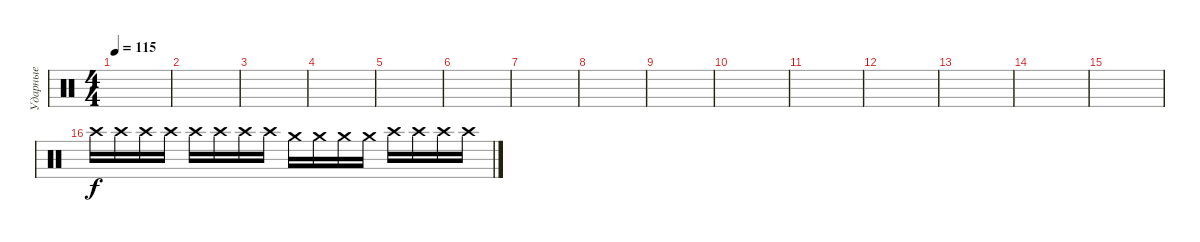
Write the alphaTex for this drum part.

\track ("Ударные" "Ударные") {instrument percussion}
\staff {score}
\articulation defaults
\ts (4 4)
\tempo 115
\clef neutral
\ks c
|
|
|
|
|
|
|
|
|
|
|
|
|
|
|
"Crash high (hit)".16{volume 2} "Crash high (hit)".16{volume 3} "Crash high (hit)".16{volume 4} "Crash high (hit)".16{volume 5} "Crash high (hit)".16{volume 2} "Crash high (hit)".16{volume 3} "Crash high (hit)".16{volume 4} "Crash high (hit)".16{volume 5} "Crash medium (hit)".16{volume 6} "Crash medium (hit)".16{volume 7} "Crash medium (hit)".16{volume 8} "Crash medium (hit)".16{volume 9} "Crash high (hit)".16{volume 10} "Crash high (hit)".16{volume 11} "Crash high (hit)".16{volume 12} "Crash high (hit)".16{volume 13}
